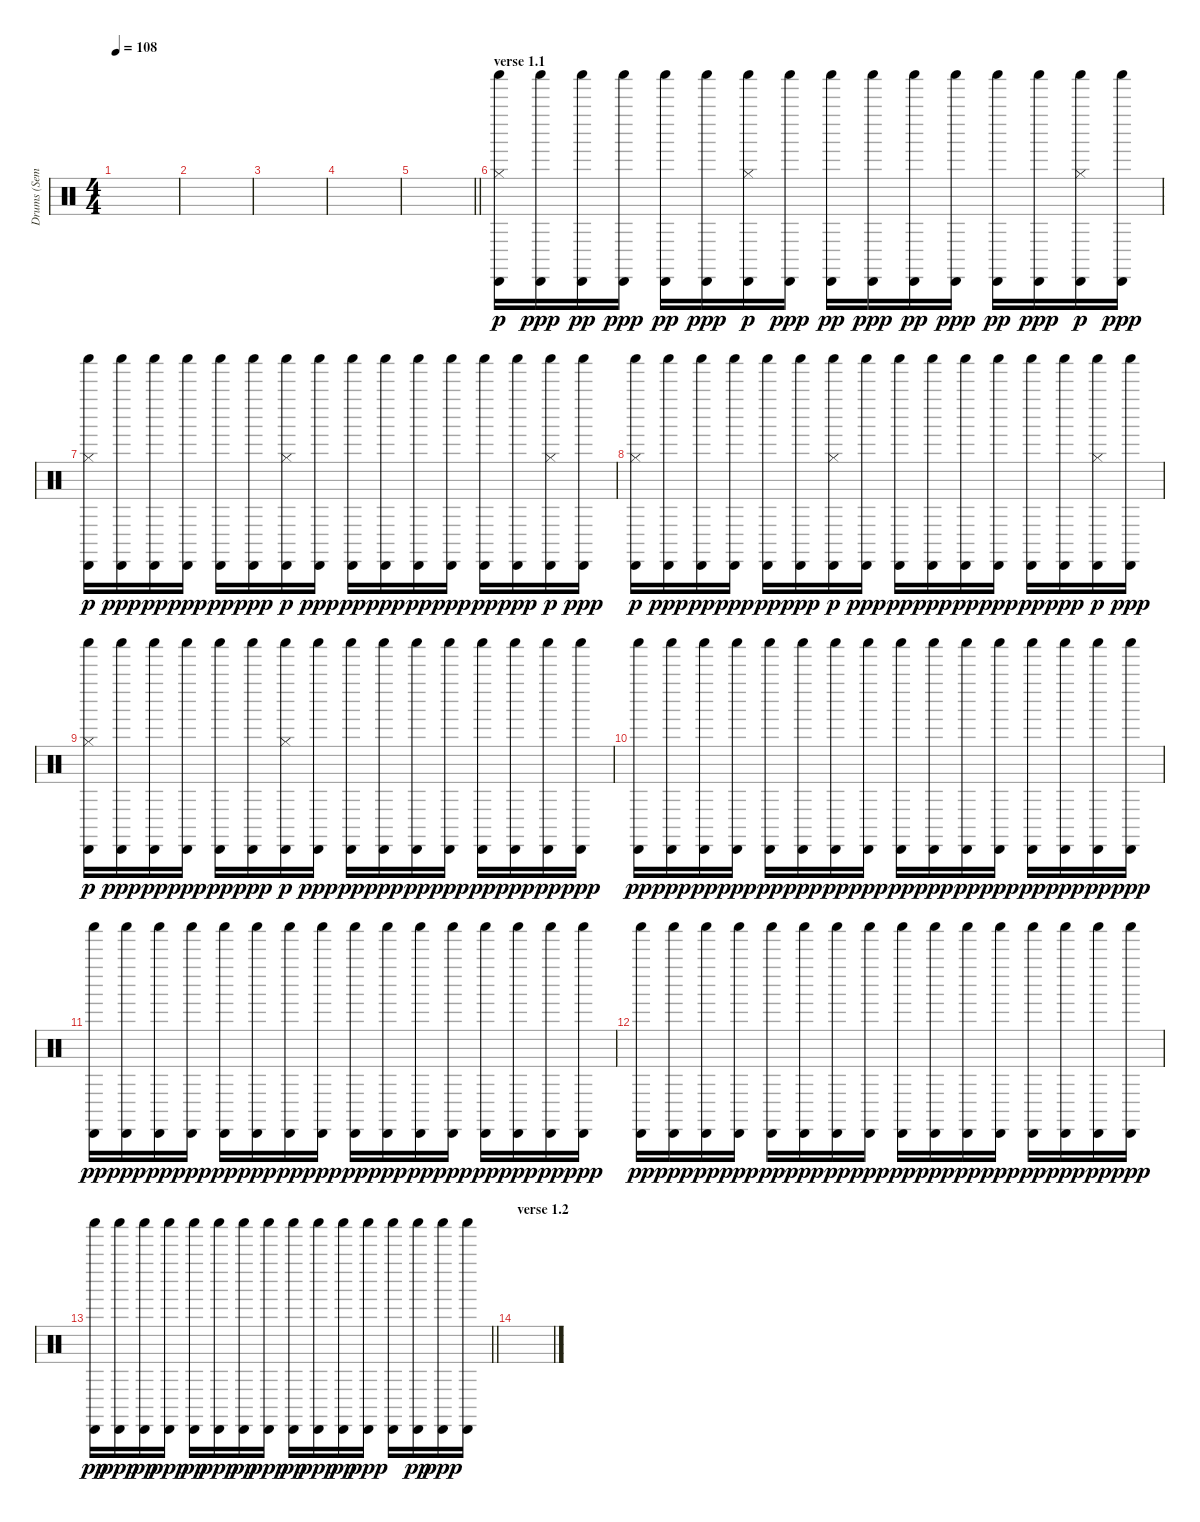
\track ("Drums (Semple)" "Drums (Sem") {instrument percussion}
\staff {score}
\articulation defaults
\ts (4 4)
\tempo 108
\clef neutral
\ks c
|
|
|
|
\barLineRight lightlight
|
\section ("" "verse 1.1")
("Cabasa (hit)" "Shaker (hit)" "Hi-Hat (closed)").16{dy p} ("Cabasa (hit)" "Shaker (hit)").16{dy ppp} ("Cabasa (hit)" "Shaker (hit)").16{dy pp} ("Cabasa (hit)" "Shaker (hit)").16{dy ppp} ("Cabasa (hit)" "Shaker (hit)").16{dy pp} ("Cabasa (hit)" "Shaker (hit)").16{dy ppp} ("Cabasa (hit)" "Shaker (hit)" "Hi-Hat (closed)").16{dy p} ("Cabasa (hit)" "Shaker (hit)").16{dy ppp} ("Cabasa (hit)" "Shaker (hit)").16{dy pp} ("Cabasa (hit)" "Shaker (hit)").16{dy ppp} ("Cabasa (hit)" "Shaker (hit)").16{dy pp} ("Cabasa (hit)" "Shaker (hit)").16{dy ppp} ("Cabasa (hit)" "Shaker (hit)").16{dy pp} ("Cabasa (hit)" "Shaker (hit)").16{dy ppp} ("Cabasa (hit)" "Shaker (hit)" "Hi-Hat (closed)").16{dy p} ("Cabasa (hit)" "Shaker (hit)").16{dy ppp} |
("Cabasa (hit)" "Shaker (hit)" "Hi-Hat (closed)").16{dy p} ("Cabasa (hit)" "Shaker (hit)").16{dy ppp} ("Cabasa (hit)" "Shaker (hit)").16{dy pp} ("Cabasa (hit)" "Shaker (hit)").16{dy ppp} ("Cabasa (hit)" "Shaker (hit)").16{dy pp} ("Cabasa (hit)" "Shaker (hit)").16{dy ppp} ("Cabasa (hit)" "Shaker (hit)" "Hi-Hat (closed)").16{dy p} ("Cabasa (hit)" "Shaker (hit)").16{dy ppp} ("Cabasa (hit)" "Shaker (hit)").16{dy pp} ("Cabasa (hit)" "Shaker (hit)").16{dy ppp} ("Cabasa (hit)" "Shaker (hit)").16{dy pp} ("Cabasa (hit)" "Shaker (hit)").16{dy ppp} ("Cabasa (hit)" "Shaker (hit)").16{dy pp} ("Cabasa (hit)" "Shaker (hit)").16{dy ppp} ("Cabasa (hit)" "Shaker (hit)" "Hi-Hat (closed)").16{dy p} ("Cabasa (hit)" "Shaker (hit)").16{dy ppp} |
("Cabasa (hit)" "Shaker (hit)" "Hi-Hat (closed)").16{dy p} ("Cabasa (hit)" "Shaker (hit)").16{dy ppp} ("Cabasa (hit)" "Shaker (hit)").16{dy pp} ("Cabasa (hit)" "Shaker (hit)").16{dy ppp} ("Cabasa (hit)" "Shaker (hit)").16{dy pp} ("Cabasa (hit)" "Shaker (hit)").16{dy ppp} ("Cabasa (hit)" "Shaker (hit)" "Hi-Hat (closed)").16{dy p} ("Cabasa (hit)" "Shaker (hit)").16{dy ppp} ("Cabasa (hit)" "Shaker (hit)").16{dy pp} ("Cabasa (hit)" "Shaker (hit)").16{dy ppp} ("Cabasa (hit)" "Shaker (hit)").16{dy pp} ("Cabasa (hit)" "Shaker (hit)").16{dy ppp} ("Cabasa (hit)" "Shaker (hit)").16{dy pp} ("Cabasa (hit)" "Shaker (hit)").16{dy ppp} ("Cabasa (hit)" "Shaker (hit)" "Hi-Hat (closed)").16{dy p} ("Cabasa (hit)" "Shaker (hit)").16{dy ppp} |
("Cabasa (hit)" "Shaker (hit)" "Hi-Hat (closed)").16{dy p} ("Cabasa (hit)" "Shaker (hit)").16{dy ppp} ("Cabasa (hit)" "Shaker (hit)").16{dy pp} ("Cabasa (hit)" "Shaker (hit)").16{dy ppp} ("Cabasa (hit)" "Shaker (hit)").16{dy pp} ("Cabasa (hit)" "Shaker (hit)").16{dy ppp} ("Cabasa (hit)" "Shaker (hit)" "Hi-Hat (closed)").16{dy p} ("Cabasa (hit)" "Shaker (hit)").16{dy ppp} ("Cabasa (hit)" "Shaker (hit)").16{dy pp} ("Cabasa (hit)" "Shaker (hit)").16{dy ppp} ("Cabasa (hit)" "Shaker (hit)").16{dy pp} ("Cabasa (hit)" "Shaker (hit)").16{dy ppp} ("Cabasa (hit)" "Shaker (hit)").16{dy pp} ("Cabasa (hit)" "Shaker (hit)").16{dy ppp} ("Cabasa (hit)" "Shaker (hit)").16{dy pp} ("Cabasa (hit)" "Shaker (hit)").16{dy ppp} |
("Cabasa (hit)" "Shaker (hit)").16{dy pp} ("Cabasa (hit)" "Shaker (hit)").16{dy ppp} ("Cabasa (hit)" "Shaker (hit)").16{dy pp} ("Cabasa (hit)" "Shaker (hit)").16{dy ppp} ("Cabasa (hit)" "Shaker (hit)").16{dy pp} ("Cabasa (hit)" "Shaker (hit)").16{dy ppp} ("Cabasa (hit)" "Shaker (hit)").16{dy pp} ("Cabasa (hit)" "Shaker (hit)").16{dy ppp} ("Cabasa (hit)" "Shaker (hit)").16{dy pp} ("Cabasa (hit)" "Shaker (hit)").16{dy ppp} ("Cabasa (hit)" "Shaker (hit)").16{dy pp} ("Cabasa (hit)" "Shaker (hit)").16{dy ppp} ("Cabasa (hit)" "Shaker (hit)").16{dy pp} ("Cabasa (hit)" "Shaker (hit)").16{dy ppp} ("Cabasa (hit)" "Shaker (hit)").16{dy pp} ("Cabasa (hit)" "Shaker (hit)").16{dy ppp} |
("Cabasa (hit)" "Shaker (hit)").16{dy pp} ("Cabasa (hit)" "Shaker (hit)").16{dy ppp} ("Cabasa (hit)" "Shaker (hit)").16{dy pp} ("Cabasa (hit)" "Shaker (hit)").16{dy ppp} ("Cabasa (hit)" "Shaker (hit)").16{dy pp} ("Cabasa (hit)" "Shaker (hit)").16{dy ppp} ("Cabasa (hit)" "Shaker (hit)").16{dy pp} ("Cabasa (hit)" "Shaker (hit)").16{dy ppp} ("Cabasa (hit)" "Shaker (hit)").16{dy pp} ("Cabasa (hit)" "Shaker (hit)").16{dy ppp} ("Cabasa (hit)" "Shaker (hit)").16{dy pp} ("Cabasa (hit)" "Shaker (hit)").16{dy ppp} ("Cabasa (hit)" "Shaker (hit)").16{dy pp} ("Cabasa (hit)" "Shaker (hit)").16{dy ppp} ("Cabasa (hit)" "Shaker (hit)").16{dy pp} ("Cabasa (hit)" "Shaker (hit)").16{dy ppp} |
("Cabasa (hit)" "Shaker (hit)").16{dy pp} ("Cabasa (hit)" "Shaker (hit)").16{dy ppp} ("Cabasa (hit)" "Shaker (hit)").16{dy pp} ("Cabasa (hit)" "Shaker (hit)").16{dy ppp} ("Cabasa (hit)" "Shaker (hit)").16{dy pp} ("Cabasa (hit)" "Shaker (hit)").16{dy ppp} ("Cabasa (hit)" "Shaker (hit)").16{dy pp} ("Cabasa (hit)" "Shaker (hit)").16{dy ppp} ("Cabasa (hit)" "Shaker (hit)").16{dy pp} ("Cabasa (hit)" "Shaker (hit)").16{dy ppp} ("Cabasa (hit)" "Shaker (hit)").16{dy pp} ("Cabasa (hit)" "Shaker (hit)").16{dy ppp} ("Cabasa (hit)" "Shaker (hit)").16{dy pp} ("Cabasa (hit)" "Shaker (hit)").16{dy ppp} ("Cabasa (hit)" "Shaker (hit)").16{dy pp} ("Cabasa (hit)" "Shaker (hit)").16{dy ppp} |
\barLineRight lightlight
("Cabasa (hit)" "Shaker (hit)").16{dy pp} ("Cabasa (hit)" "Shaker (hit)").16{dy ppp} ("Cabasa (hit)" "Shaker (hit)").16{dy pp} ("Cabasa (hit)" "Shaker (hit)").16{dy ppp} ("Cabasa (hit)" "Shaker (hit)").16{dy pp} ("Cabasa (hit)" "Shaker (hit)").16{dy ppp} ("Cabasa (hit)" "Shaker (hit)").16{dy pp} ("Cabasa (hit)" "Shaker (hit)").16{dy ppp} ("Cabasa (hit)" "Shaker (hit)").16{dy pp} ("Cabasa (hit)" "Shaker (hit)").16{dy ppp} ("Cabasa (hit)" "Shaker (hit)").16{dy pp} ("Cabasa (hit)" "Shaker (hit)").16{dy ppp} ("Cabasa (hit)" "Shaker (hit)").16 ("Cabasa (hit)" "Shaker (hit)").16{dy pp} ("Cabasa (hit)" "Shaker (hit)").16{dy ppp} ("Cabasa (hit)" "Shaker (hit)").16 |
\section ("" "verse 1.2")
